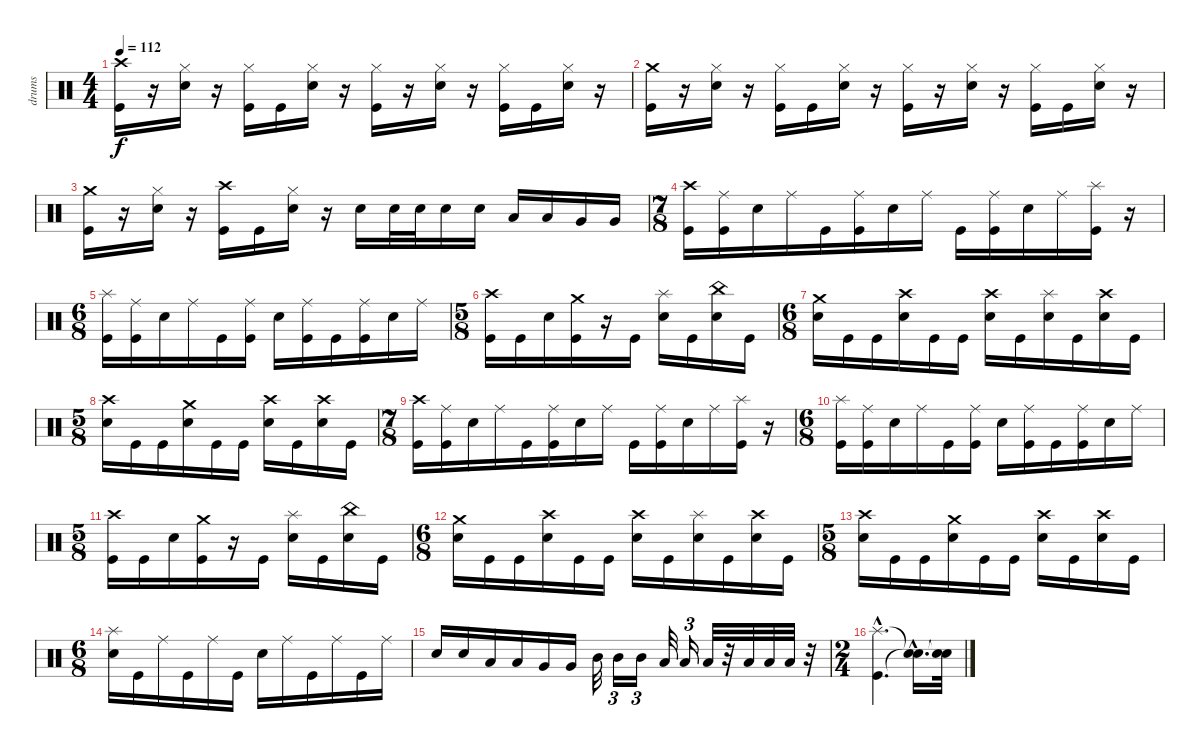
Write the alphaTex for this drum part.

\track ("drums" "drums") {instrument percussion}
\staff {score}
\articulation defaults
\ts (4 4)
\tempo 112
\clef neutral
\ks c
("Kick (hit)" "Crash high (hit)").16{dy f} r.16 ("Hi-Hat (closed)" "Electric Snare (hit)").16 r.16 ("Hi-Hat (closed)" "Kick (hit)").16 "Kick (hit)".16 ("Hi-Hat (closed)" "Electric Snare (hit)").16 r.16 ("Hi-Hat (closed)" "Kick (hit)").16 r.16 ("Hi-Hat (closed)" "Electric Snare (hit)").16 r.16 ("Hi-Hat (closed)" "Kick (hit)").16 "Kick (hit)".16 ("Hi-Hat (closed)" "Electric Snare (hit)").16 r.16 |
("Kick (hit)" "Crash medium (hit)").16 r.16 ("Hi-Hat (closed)" "Electric Snare (hit)").16 r.16 ("Hi-Hat (closed)" "Kick (hit)").16 "Kick (hit)".16 ("Hi-Hat (closed)" "Electric Snare (hit)").16 r.16 ("Hi-Hat (closed)" "Kick (hit)").16 r.16 ("Hi-Hat (closed)" "Electric Snare (hit)").16 r.16 ("Hi-Hat (closed)" "Kick (hit)").16 "Kick (hit)".16 ("Hi-Hat (closed)" "Electric Snare (hit)").16 r.16 |
("Crash medium (hit)" "Kick (hit)").16 r.16 ("Hi-Hat (closed)" "Electric Snare (hit)").16 r.16 ("Crash high (hit)" "Kick (hit)").16 "Kick (hit)".16 ("Hi-Hat (closed)" "Electric Snare (hit)").16 r.16 "Electric Snare (hit)".16 "Electric Snare (hit)".32 "Electric Snare (hit)".32 "Electric Snare (hit)".16 "Electric Snare (hit)".16 "Low Tom (hit)".16 "Low Tom (hit)".16 "Very Low Tom (hit)".16 "Very Low Tom (hit)".16 |
\ts (7 8)
("Crash high (hit)" "Kick (hit)").16 ("Ride (middle)" "Kick (hit)").16 "Electric Snare (hit)".16 "Ride (middle)".16 "Kick (hit)".16 ("Ride (middle)" "Kick (hit)").16 "Electric Snare (hit)".16 "Ride (middle)".16 "Kick (hit)".16 ("Ride (middle)" "Kick (hit)").16 "Electric Snare (hit)".16 "Ride (middle)".16 ("Splash (hit)" "Kick (hit)").16 r.16 |
\ts (6 8)
("Splash (hit)" "Kick (hit)").16 ("Ride (middle)" "Kick (hit)").16 "Snare (hit) 2".16 "Ride (middle)".16 "Kick (hit)".16 ("Ride (middle)" "Kick (hit)").16 "Snare (hit) 2".16 ("Ride (middle)" "Kick (hit)").16 "Kick (hit)".16 ("Ride (middle)" "Kick (hit)").16 "Electric Snare (hit)".16 "Ride (middle)".16 |
\ts (5 8)
("Crash high (hit)" "Kick (hit)").16 "Kick (hit)".16 "Snare (hit) 2".16 ("Kick (hit)" "Crash medium (hit)").16 r.16 "Kick (hit)".16 ("Splash (hit)" "Electric Snare (hit)").16 "Kick (hit)".16 ("China (hit)" "Electric Snare (hit)").16 "Kick (hit)".16 |
\ts (6 8)
("Crash medium (hit)" "Electric Snare (hit)").16 "Kick (hit)".16 "Kick (hit)".16 ("Crash high (hit)" "Electric Snare (hit)").16 "Kick (hit)".16 "Kick (hit)".16 ("Crash high (hit)" "Electric Snare (hit)").16 "Kick (hit)".16 ("Splash (hit)" "Electric Snare (hit)").16 "Kick (hit)".16 ("Crash high (hit)" "Electric Snare (hit)").16 "Kick (hit)".16 |
\ts (5 8)
("Crash high (hit)" "Electric Snare (hit)").16 "Kick (hit)".16 "Kick (hit)".16 ("Crash medium (hit)" "Snare (hit) 2").16 "Kick (hit)".16 "Kick (hit)".16 ("Crash high (hit)" "Electric Snare (hit)").16 "Kick (hit)".16 ("Crash high (hit)" "Electric Snare (hit)").16 "Kick (hit)".16 |
\ts (7 8)
("Crash high (hit)" "Kick (hit)").16 ("Ride (middle)" "Kick (hit)").16 "Electric Snare (hit)".16 "Ride (middle)".16 "Kick (hit)".16 ("Ride (middle)" "Kick (hit)").16 "Electric Snare (hit)".16 "Ride (middle)".16 "Kick (hit)".16 ("Ride (middle)" "Kick (hit)").16 "Electric Snare (hit)".16 "Ride (middle)".16 ("Splash (hit)" "Kick (hit)").16 r.16 |
\ts (6 8)
("Splash (hit)" "Kick (hit)").16 ("Ride (middle)" "Kick (hit)").16 "Snare (hit) 2".16 "Ride (middle)".16 "Kick (hit)".16 ("Ride (middle)" "Kick (hit)").16 "Snare (hit) 2".16 ("Ride (middle)" "Kick (hit)").16 "Kick (hit)".16 ("Ride (middle)" "Kick (hit)").16 "Electric Snare (hit)".16 "Ride (middle)".16 |
\ts (5 8)
("Crash high (hit)" "Kick (hit)").16 "Kick (hit)".16 "Snare (hit) 2".16 ("Kick (hit)" "Crash medium (hit)").16 r.16 "Kick (hit)".16 ("Splash (hit)" "Electric Snare (hit)").16 "Kick (hit)".16 ("China (hit)" "Electric Snare (hit)").16 "Kick (hit)".16 |
\ts (6 8)
("Crash medium (hit)" "Electric Snare (hit)").16 "Kick (hit)".16 "Kick (hit)".16 ("Crash high (hit)" "Electric Snare (hit)").16 "Kick (hit)".16 "Kick (hit)".16 ("Crash high (hit)" "Electric Snare (hit)").16 "Kick (hit)".16 ("Splash (hit)" "Electric Snare (hit)").16 "Kick (hit)".16 ("Crash high (hit)" "Electric Snare (hit)").16 "Kick (hit)".16 |
\ts (5 8)
("Crash high (hit)" "Electric Snare (hit)").16 "Kick (hit)".16 "Kick (hit)".16 ("Crash medium (hit)" "Snare (hit) 2").16 "Kick (hit)".16 "Kick (hit)".16 ("Crash high (hit)" "Electric Snare (hit)").16 "Kick (hit)".16 ("Crash high (hit)" "Electric Snare (hit)").16 "Kick (hit)".16 |
\ts (6 8)
("Splash (hit)" "Electric Snare (hit)").16 "Kick (hit)".16 "Ride (middle)".16 "Kick (hit)".16 "Ride (middle)".16 "Kick (hit)".16 "Electric Snare (hit)".16 "Ride (middle)".16 "Kick (hit)".16 "Ride (middle)".16 "Kick (hit)".16 "Ride (middle)".16 |
"Electric Snare (hit)".16 "Electric Snare (hit)".16 "Low Tom (hit)".16 "Low Tom (hit)".16 "Very Low Tom (hit)".16 "Very Low Tom (hit)".16 "Mid Tom (hit)".32 "Mid Tom (hit)".16{tu (3 2)} "Mid Tom (hit)".16{tu (3 2)} "Low Tom (hit)".32 "Low Tom (hit)".16{tu (3 2)} "Low Tom (hit)".32 r.32 "Low Floor Tom (hit)".32 "Low Floor Tom (hit)".32 "Low Floor Tom (hit)".32 r.32 |
\ts (2 4)
("Splash (hit)"{hac} "Kick (hit)"{hac}).4{d} ("Snare (hit)"{hac t} "Snare (hit)"{hac t}).16{d} ("Snare (hit)"{t} "Snare (hit)"{t}).32
